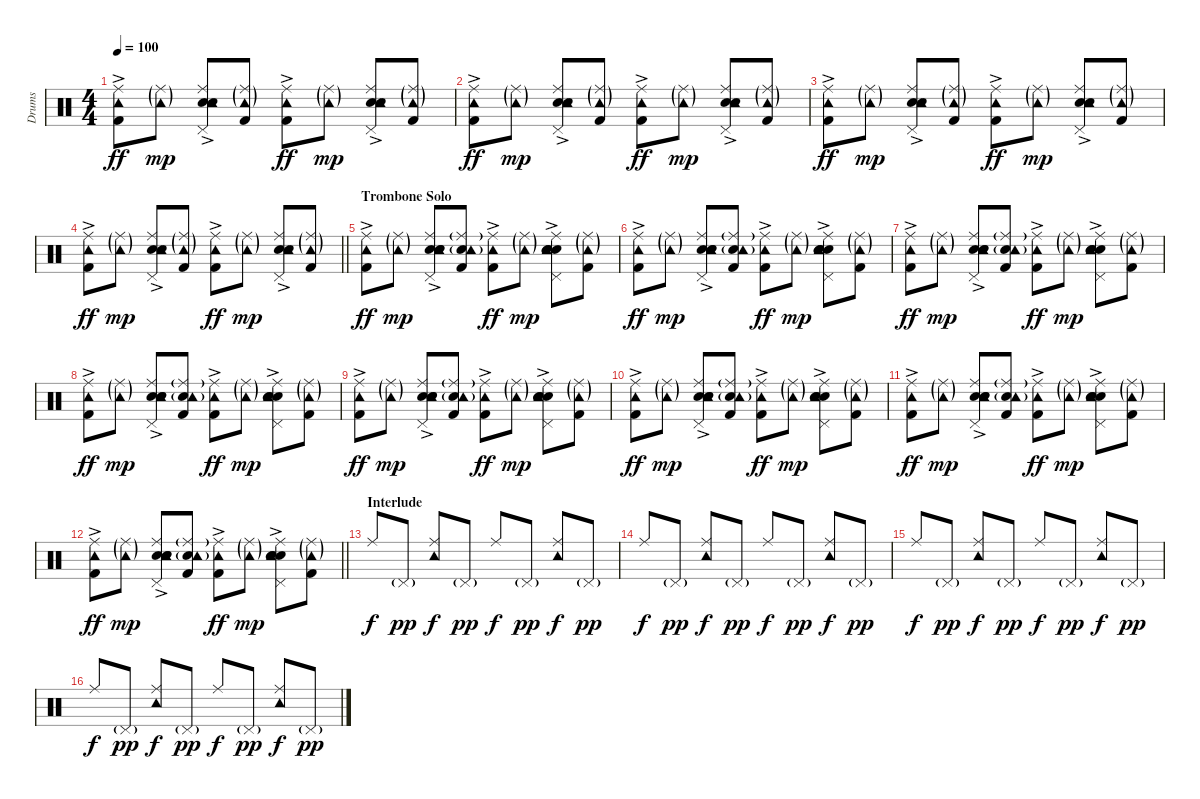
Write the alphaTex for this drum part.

\track ("Drums" "Drums") {instrument percussion}
\staff {score}
\articulation defaults
\ts (4 4)
\tempo 100
\clef neutral
\ks c
("Kick (hit) 2"{ac} "Tambourine (hit)" "Ride (middle)").8{dy ff} ("Tambourine (hit)"{g} "Ride (middle)"{g}).8{dy mp} ("Electric Snare (hit)"{ac} "Snare (hit) 2" "Pedal Hi-Hat (hit)" "Tambourine (hit)" "Ride (middle)").8 ("Kick (hit) 2" "Tambourine (hit)"{g} "Ride (middle)"{g}).8 ("Kick (hit) 2"{ac} "Tambourine (hit)" "Ride (middle)").8{dy ff} ("Tambourine (hit)"{g} "Ride (middle)"{g}).8{dy mp} ("Electric Snare (hit)"{ac} "Snare (hit) 2" "Pedal Hi-Hat (hit)" "Tambourine (hit)" "Ride (middle)").8 ("Kick (hit) 2" "Tambourine (hit)"{g} "Ride (middle)"{g}).8 |
("Kick (hit) 2"{ac} "Tambourine (hit)" "Ride (middle)").8{dy ff} ("Tambourine (hit)"{g} "Ride (middle)"{g}).8{dy mp} ("Electric Snare (hit)"{ac} "Snare (hit) 2" "Pedal Hi-Hat (hit)" "Tambourine (hit)" "Ride (middle)").8 ("Kick (hit) 2" "Tambourine (hit)"{g} "Ride (middle)"{g}).8 ("Kick (hit) 2"{ac} "Tambourine (hit)" "Ride (middle)").8{dy ff} ("Tambourine (hit)"{g} "Ride (middle)"{g}).8{dy mp} ("Electric Snare (hit)"{ac} "Snare (hit) 2" "Pedal Hi-Hat (hit)" "Tambourine (hit)" "Ride (middle)").8 ("Kick (hit) 2" "Tambourine (hit)"{g} "Ride (middle)"{g}).8 |
("Kick (hit) 2"{ac} "Tambourine (hit)" "Ride (middle)").8{dy ff} ("Tambourine (hit)"{g} "Ride (middle)"{g}).8{dy mp} ("Electric Snare (hit)"{ac} "Snare (hit) 2" "Pedal Hi-Hat (hit)" "Tambourine (hit)" "Ride (middle)").8 ("Kick (hit) 2" "Tambourine (hit)"{g} "Ride (middle)"{g}).8 ("Kick (hit) 2"{ac} "Tambourine (hit)" "Ride (middle)").8{dy ff} ("Tambourine (hit)"{g} "Ride (middle)"{g}).8{dy mp} ("Electric Snare (hit)"{ac} "Snare (hit) 2" "Pedal Hi-Hat (hit)" "Tambourine (hit)" "Ride (middle)").8 ("Kick (hit) 2" "Tambourine (hit)"{g} "Ride (middle)"{g}).8 |
\barLineRight lightlight
("Kick (hit) 2"{ac} "Tambourine (hit)" "Ride (middle)").8{dy ff} ("Tambourine (hit)"{g} "Ride (middle)"{g}).8{dy mp} ("Electric Snare (hit)"{ac} "Snare (hit) 2" "Pedal Hi-Hat (hit)" "Tambourine (hit)" "Ride (middle)").8 ("Kick (hit) 2" "Tambourine (hit)"{g} "Ride (middle)"{g}).8 ("Kick (hit) 2"{ac} "Tambourine (hit)" "Ride (middle)").8{dy ff} ("Tambourine (hit)"{g} "Ride (middle)"{g}).8{dy mp} ("Electric Snare (hit)"{ac} "Snare (hit) 2" "Pedal Hi-Hat (hit)" "Tambourine (hit)" "Ride (middle)").8 ("Kick (hit) 2" "Tambourine (hit)"{g} "Ride (middle)"{g}).8 |
\section ("" "Trombone Solo")
("Kick (hit) 2"{ac} "Tambourine (hit)" "Ride (middle)").8{dy ff} ("Tambourine (hit)"{g} "Ride (middle)"{g}).8{dy mp} ("Electric Snare (hit)"{ac} "Snare (hit) 2" "Hand Clap (hit)" "Pedal Hi-Hat (hit)" "Tambourine (hit)" "Ride (middle)").8 ("Kick (hit) 2" "Hand Clap (hit)" "Tambourine (hit)"{g} "Ride (middle)"{g}).8 ("Kick (hit) 2"{ac} "Tambourine (hit)" "Ride (middle)").8{dy ff} ("Tambourine (hit)"{g} "Ride (middle)"{g}).8{dy mp} ("Electric Snare (hit)"{ac} "Snare (hit) 2" "Hand Clap (hit)" "Pedal Hi-Hat (hit)" "Tambourine (hit)" "Ride (middle)").8 ("Kick (hit) 2" "Tambourine (hit)"{g} "Ride (middle)"{g}).8 |
("Kick (hit) 2"{ac} "Tambourine (hit)" "Ride (middle)").8{dy ff} ("Tambourine (hit)"{g} "Ride (middle)"{g}).8{dy mp} ("Electric Snare (hit)"{ac} "Snare (hit) 2" "Hand Clap (hit)" "Pedal Hi-Hat (hit)" "Tambourine (hit)" "Ride (middle)").8 ("Kick (hit) 2" "Hand Clap (hit)" "Tambourine (hit)"{g} "Ride (middle)"{g}).8 ("Kick (hit) 2"{ac} "Tambourine (hit)" "Ride (middle)").8{dy ff} ("Tambourine (hit)"{g} "Ride (middle)"{g}).8{dy mp} ("Electric Snare (hit)"{ac} "Snare (hit) 2" "Hand Clap (hit)" "Pedal Hi-Hat (hit)" "Tambourine (hit)" "Ride (middle)").8 ("Kick (hit) 2" "Tambourine (hit)"{g} "Ride (middle)"{g}).8 |
("Kick (hit) 2"{ac} "Tambourine (hit)" "Ride (middle)").8{dy ff} ("Tambourine (hit)"{g} "Ride (middle)"{g}).8{dy mp} ("Electric Snare (hit)"{ac} "Snare (hit) 2" "Hand Clap (hit)" "Pedal Hi-Hat (hit)" "Tambourine (hit)" "Ride (middle)").8 ("Kick (hit) 2" "Hand Clap (hit)" "Tambourine (hit)"{g} "Ride (middle)"{g}).8 ("Kick (hit) 2"{ac} "Tambourine (hit)" "Ride (middle)").8{dy ff} ("Tambourine (hit)"{g} "Ride (middle)"{g}).8{dy mp} ("Electric Snare (hit)"{ac} "Snare (hit) 2" "Hand Clap (hit)" "Pedal Hi-Hat (hit)" "Tambourine (hit)" "Ride (middle)").8 ("Kick (hit) 2" "Tambourine (hit)"{g} "Ride (middle)"{g}).8 |
("Kick (hit) 2"{ac} "Tambourine (hit)" "Ride (middle)").8{dy ff} ("Tambourine (hit)"{g} "Ride (middle)"{g}).8{dy mp} ("Electric Snare (hit)"{ac} "Snare (hit) 2" "Hand Clap (hit)" "Pedal Hi-Hat (hit)" "Tambourine (hit)" "Ride (middle)").8 ("Kick (hit) 2" "Hand Clap (hit)" "Tambourine (hit)"{g} "Ride (middle)"{g}).8 ("Kick (hit) 2"{ac} "Tambourine (hit)" "Ride (middle)").8{dy ff} ("Tambourine (hit)"{g} "Ride (middle)"{g}).8{dy mp} ("Electric Snare (hit)"{ac} "Snare (hit) 2" "Hand Clap (hit)" "Pedal Hi-Hat (hit)" "Tambourine (hit)" "Ride (middle)").8 ("Kick (hit) 2" "Tambourine (hit)"{g} "Ride (middle)"{g}).8 |
("Kick (hit) 2"{ac} "Tambourine (hit)" "Ride (middle)").8{dy ff} ("Tambourine (hit)"{g} "Ride (middle)"{g}).8{dy mp} ("Electric Snare (hit)"{ac} "Snare (hit) 2" "Hand Clap (hit)" "Pedal Hi-Hat (hit)" "Tambourine (hit)" "Ride (middle)").8 ("Kick (hit) 2" "Hand Clap (hit)" "Tambourine (hit)"{g} "Ride (middle)"{g}).8 ("Kick (hit) 2"{ac} "Tambourine (hit)" "Ride (middle)").8{dy ff} ("Tambourine (hit)"{g} "Ride (middle)"{g}).8{dy mp} ("Electric Snare (hit)"{ac} "Snare (hit) 2" "Hand Clap (hit)" "Pedal Hi-Hat (hit)" "Tambourine (hit)" "Ride (middle)").8 ("Kick (hit) 2" "Tambourine (hit)"{g} "Ride (middle)"{g}).8 |
("Kick (hit) 2"{ac} "Tambourine (hit)" "Ride (middle)").8{dy ff} ("Tambourine (hit)"{g} "Ride (middle)"{g}).8{dy mp} ("Electric Snare (hit)"{ac} "Snare (hit) 2" "Hand Clap (hit)" "Pedal Hi-Hat (hit)" "Tambourine (hit)" "Ride (middle)").8 ("Kick (hit) 2" "Hand Clap (hit)" "Tambourine (hit)"{g} "Ride (middle)"{g}).8 ("Kick (hit) 2"{ac} "Tambourine (hit)" "Ride (middle)").8{dy ff} ("Tambourine (hit)"{g} "Ride (middle)"{g}).8{dy mp} ("Electric Snare (hit)"{ac} "Snare (hit) 2" "Hand Clap (hit)" "Pedal Hi-Hat (hit)" "Tambourine (hit)" "Ride (middle)").8 ("Kick (hit) 2" "Tambourine (hit)"{g} "Ride (middle)"{g}).8 |
("Kick (hit) 2"{ac} "Tambourine (hit)" "Ride (middle)").8{dy ff} ("Tambourine (hit)"{g} "Ride (middle)"{g}).8{dy mp} ("Electric Snare (hit)"{ac} "Snare (hit) 2" "Hand Clap (hit)" "Pedal Hi-Hat (hit)" "Tambourine (hit)" "Ride (middle)").8 ("Kick (hit) 2" "Hand Clap (hit)" "Tambourine (hit)"{g} "Ride (middle)"{g}).8 ("Kick (hit) 2"{ac} "Tambourine (hit)" "Ride (middle)").8{dy ff} ("Tambourine (hit)"{g} "Ride (middle)"{g}).8{dy mp} ("Electric Snare (hit)"{ac} "Snare (hit) 2" "Hand Clap (hit)" "Pedal Hi-Hat (hit)" "Tambourine (hit)" "Ride (middle)").8 ("Kick (hit) 2" "Tambourine (hit)"{g} "Ride (middle)"{g}).8 |
\barLineRight lightlight
("Kick (hit) 2"{ac} "Tambourine (hit)" "Ride (middle)").8{dy ff} ("Tambourine (hit)"{g} "Ride (middle)"{g}).8{dy mp} ("Electric Snare (hit)"{ac} "Snare (hit) 2" "Hand Clap (hit)" "Pedal Hi-Hat (hit)" "Tambourine (hit)" "Ride (middle)").8 ("Kick (hit) 2" "Hand Clap (hit)" "Tambourine (hit)"{g} "Ride (middle)"{g}).8 ("Kick (hit) 2"{ac} "Tambourine (hit)" "Ride (middle)").8{dy ff} ("Tambourine (hit)"{g} "Ride (middle)"{g}).8{dy mp} ("Electric Snare (hit)"{ac} "Snare (hit) 2" "Hand Clap (hit)" "Pedal Hi-Hat (hit)" "Tambourine (hit)" "Ride (middle)").8 ("Kick (hit) 2" "Tambourine (hit)"{g} "Ride (middle)"{g}).8 |
\section ("" "Interlude")
"Ride (middle)".8{dy f} "Pedal Hi-Hat (hit)"{g}.8{dy pp} ("Tambourine (hit)" "Ride (middle)").8{dy f} "Pedal Hi-Hat (hit)"{g}.8{dy pp} "Ride (middle)".8{dy f} "Pedal Hi-Hat (hit)"{g}.8{dy pp} ("Tambourine (hit)" "Ride (middle)").8{dy f} "Pedal Hi-Hat (hit)"{g}.8{dy pp} |
"Ride (middle)".8{dy f} "Pedal Hi-Hat (hit)"{g}.8{dy pp} ("Tambourine (hit)" "Ride (middle)").8{dy f} "Pedal Hi-Hat (hit)"{g}.8{dy pp} "Ride (middle)".8{dy f} "Pedal Hi-Hat (hit)"{g}.8{dy pp} ("Tambourine (hit)" "Ride (middle)").8{dy f} "Pedal Hi-Hat (hit)"{g}.8{dy pp} |
"Ride (middle)".8{dy f} "Pedal Hi-Hat (hit)"{g}.8{dy pp} ("Tambourine (hit)" "Ride (middle)").8{dy f} "Pedal Hi-Hat (hit)"{g}.8{dy pp} "Ride (middle)".8{dy f} "Pedal Hi-Hat (hit)"{g}.8{dy pp} ("Tambourine (hit)" "Ride (middle)").8{dy f} "Pedal Hi-Hat (hit)"{g}.8{dy pp} |
"Ride (middle)".8{dy f} "Pedal Hi-Hat (hit)"{g}.8{dy pp} ("Tambourine (hit)" "Ride (middle)").8{dy f} "Pedal Hi-Hat (hit)"{g}.8{dy pp} "Ride (middle)".8{dy f} "Pedal Hi-Hat (hit)"{g}.8{dy pp} ("Tambourine (hit)" "Ride (middle)").8{dy f} "Pedal Hi-Hat (hit)"{g}.8{dy pp}
